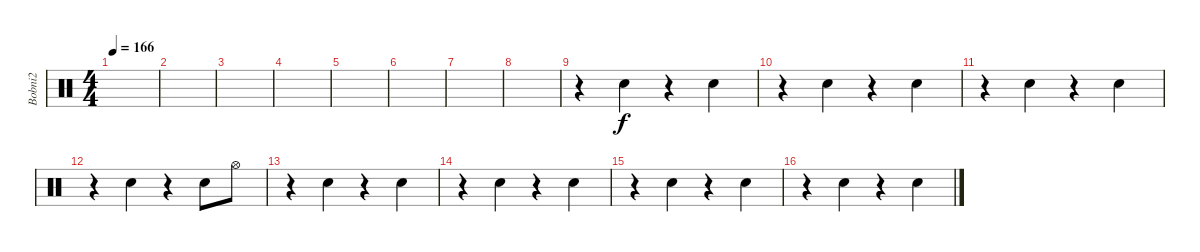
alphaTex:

\track ("Bobni2" "Bobni2") {instrument percussion}
\staff {score}
\articulation defaults
\ts (4 4)
\tempo 166
\clef neutral
\ks c
|
|
|
|
|
|
|
|
r.4 "Snare (hit) 2".4 r.4 "Snare (hit) 2".4 |
r.4 "Snare (hit) 2".4 r.4 "Snare (hit) 2".4 |
r.4 "Snare (hit) 2".4 r.4 "Snare (hit) 2".4 |
r.4 "Snare (hit) 2".4 r.4 "Snare (hit) 2".8 "Hi-Hat (open)".8 |
r.4 "Snare (hit) 2".4 r.4 "Snare (hit) 2".4 |
r.4 "Snare (hit) 2".4 r.4 "Snare (hit) 2".4 |
r.4 "Snare (hit) 2".4 r.4 "Snare (hit) 2".4 |
r.4 "Snare (hit) 2".4 r.4 "Snare (hit) 2".4
